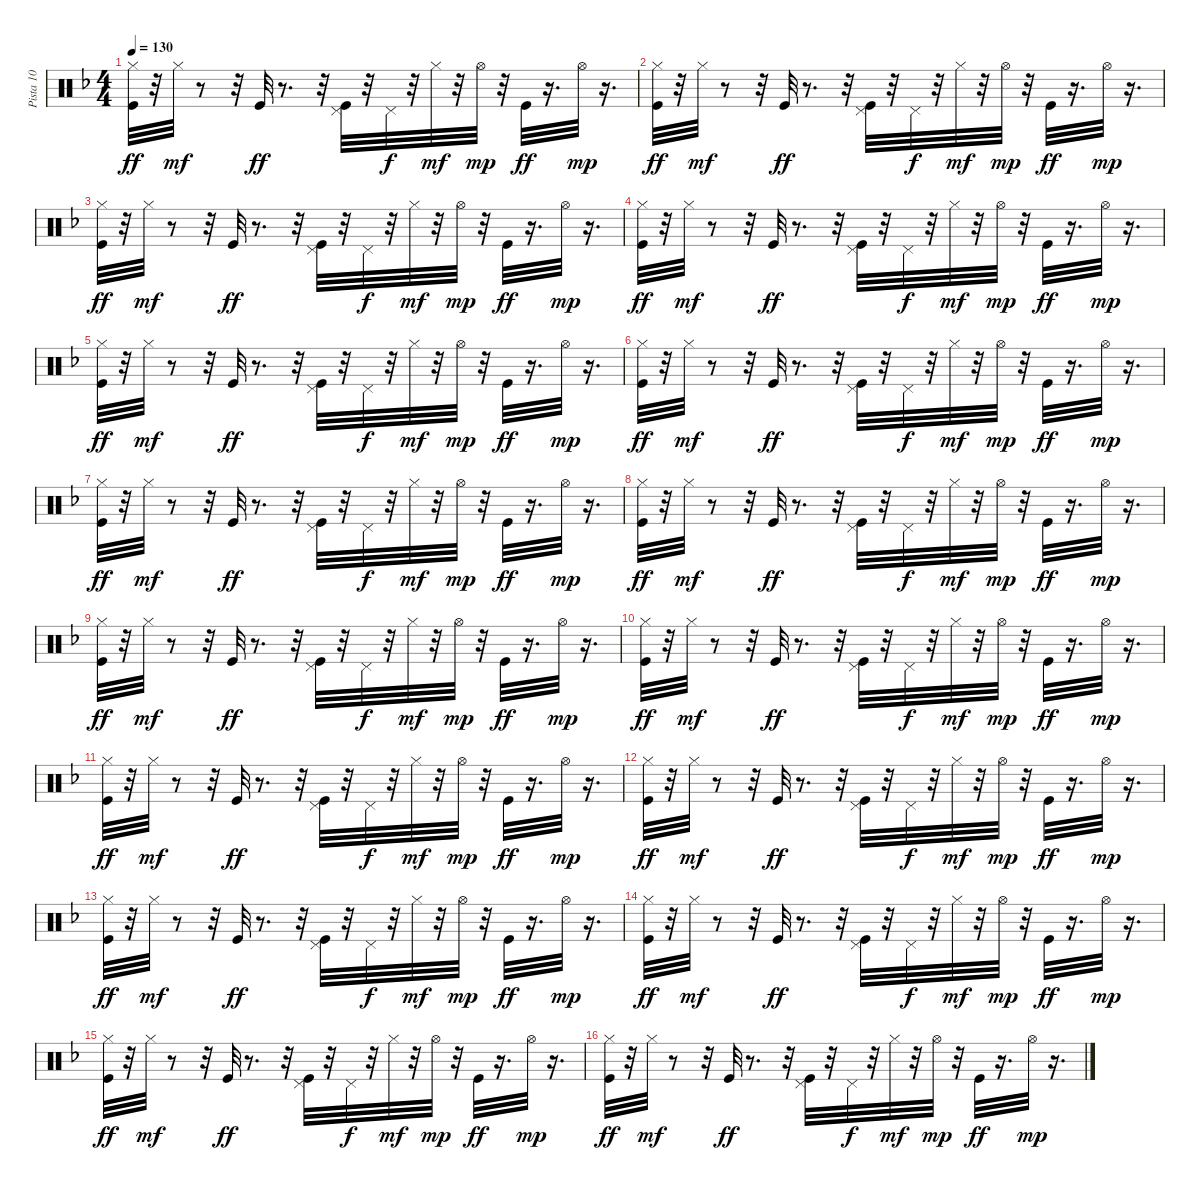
\track ("Pista 10" "Pista 10") {instrument percussion}
\staff {score}
\articulation defaults
\ts (4 4)
\tempo 130
\clef neutral
\ks dminor
("Hi-Hat (closed)" "Kick (hit)").32{dy ff} r.32 "Hi-Hat (closed)".32{dy mf} r.8 r.32 "Kick (hit)".32{dy ff} r.8{d} r.32 ("Pedal Hi-Hat (hit)" "Kick (hit)").32 r.32 "Pedal Hi-Hat (hit)".32{dy f} r.32 "Hi-Hat (closed)".32{dy mf} r.32 "Hi-Hat (open)".32{dy mp} r.32 "Kick (hit)".32{dy ff} r.16{d} "Hi-Hat (open)".32{dy mp} r.16{d} |
("Hi-Hat (closed)" "Kick (hit)").32{dy ff} r.32 "Hi-Hat (closed)".32{dy mf} r.8 r.32 "Kick (hit)".32{dy ff} r.8{d} r.32 ("Pedal Hi-Hat (hit)" "Kick (hit)").32 r.32 "Pedal Hi-Hat (hit)".32{dy f} r.32 "Hi-Hat (closed)".32{dy mf} r.32 "Hi-Hat (open)".32{dy mp} r.32 "Kick (hit)".32{dy ff} r.16{d} "Hi-Hat (open)".32{dy mp} r.16{d} |
("Hi-Hat (closed)" "Kick (hit)").32{dy ff} r.32 "Hi-Hat (closed)".32{dy mf} r.8 r.32 "Kick (hit)".32{dy ff} r.8{d} r.32 ("Pedal Hi-Hat (hit)" "Kick (hit)").32 r.32 "Pedal Hi-Hat (hit)".32{dy f} r.32 "Hi-Hat (closed)".32{dy mf} r.32 "Hi-Hat (open)".32{dy mp} r.32 "Kick (hit)".32{dy ff} r.16{d} "Hi-Hat (open)".32{dy mp} r.16{d} |
("Hi-Hat (closed)" "Kick (hit)").32{dy ff} r.32 "Hi-Hat (closed)".32{dy mf} r.8 r.32 "Kick (hit)".32{dy ff} r.8{d} r.32 ("Pedal Hi-Hat (hit)" "Kick (hit)").32 r.32 "Pedal Hi-Hat (hit)".32{dy f} r.32 "Hi-Hat (closed)".32{dy mf} r.32 "Hi-Hat (open)".32{dy mp} r.32 "Kick (hit)".32{dy ff} r.16{d} "Hi-Hat (open)".32{dy mp} r.16{d} |
("Hi-Hat (closed)" "Kick (hit)").32{dy ff} r.32 "Hi-Hat (closed)".32{dy mf} r.8 r.32 "Kick (hit)".32{dy ff} r.8{d} r.32 ("Pedal Hi-Hat (hit)" "Kick (hit)").32 r.32 "Pedal Hi-Hat (hit)".32{dy f} r.32 "Hi-Hat (closed)".32{dy mf} r.32 "Hi-Hat (open)".32{dy mp} r.32 "Kick (hit)".32{dy ff} r.16{d} "Hi-Hat (open)".32{dy mp} r.16{d} |
("Hi-Hat (closed)" "Kick (hit)").32{dy ff} r.32 "Hi-Hat (closed)".32{dy mf} r.8 r.32 "Kick (hit)".32{dy ff} r.8{d} r.32 ("Pedal Hi-Hat (hit)" "Kick (hit)").32 r.32 "Pedal Hi-Hat (hit)".32{dy f} r.32 "Hi-Hat (closed)".32{dy mf} r.32 "Hi-Hat (open)".32{dy mp} r.32 "Kick (hit)".32{dy ff} r.16{d} "Hi-Hat (open)".32{dy mp} r.16{d} |
("Hi-Hat (closed)" "Kick (hit)").32{dy ff} r.32 "Hi-Hat (closed)".32{dy mf} r.8 r.32 "Kick (hit)".32{dy ff} r.8{d} r.32 ("Pedal Hi-Hat (hit)" "Kick (hit)").32 r.32 "Pedal Hi-Hat (hit)".32{dy f} r.32 "Hi-Hat (closed)".32{dy mf} r.32 "Hi-Hat (open)".32{dy mp} r.32 "Kick (hit)".32{dy ff} r.16{d} "Hi-Hat (open)".32{dy mp} r.16{d} |
("Hi-Hat (closed)" "Kick (hit)").32{dy ff} r.32 "Hi-Hat (closed)".32{dy mf} r.8 r.32 "Kick (hit)".32{dy ff} r.8{d} r.32 ("Pedal Hi-Hat (hit)" "Kick (hit)").32 r.32 "Pedal Hi-Hat (hit)".32{dy f} r.32 "Hi-Hat (closed)".32{dy mf} r.32 "Hi-Hat (open)".32{dy mp} r.32 "Kick (hit)".32{dy ff} r.16{d} "Hi-Hat (open)".32{dy mp} r.16{d} |
("Hi-Hat (closed)" "Kick (hit)").32{dy ff} r.32 "Hi-Hat (closed)".32{dy mf} r.8 r.32 "Kick (hit)".32{dy ff} r.8{d} r.32 ("Pedal Hi-Hat (hit)" "Kick (hit)").32 r.32 "Pedal Hi-Hat (hit)".32{dy f} r.32 "Hi-Hat (closed)".32{dy mf} r.32 "Hi-Hat (open)".32{dy mp} r.32 "Kick (hit)".32{dy ff} r.16{d} "Hi-Hat (open)".32{dy mp} r.16{d} |
("Hi-Hat (closed)" "Kick (hit)").32{dy ff} r.32 "Hi-Hat (closed)".32{dy mf} r.8 r.32 "Kick (hit)".32{dy ff} r.8{d} r.32 ("Pedal Hi-Hat (hit)" "Kick (hit)").32 r.32 "Pedal Hi-Hat (hit)".32{dy f} r.32 "Hi-Hat (closed)".32{dy mf} r.32 "Hi-Hat (open)".32{dy mp} r.32 "Kick (hit)".32{dy ff} r.16{d} "Hi-Hat (open)".32{dy mp} r.16{d} |
("Hi-Hat (closed)" "Kick (hit)").32{dy ff} r.32 "Hi-Hat (closed)".32{dy mf} r.8 r.32 "Kick (hit)".32{dy ff} r.8{d} r.32 ("Pedal Hi-Hat (hit)" "Kick (hit)").32 r.32 "Pedal Hi-Hat (hit)".32{dy f} r.32 "Hi-Hat (closed)".32{dy mf} r.32 "Hi-Hat (open)".32{dy mp} r.32 "Kick (hit)".32{dy ff} r.16{d} "Hi-Hat (open)".32{dy mp} r.16{d} |
("Hi-Hat (closed)" "Kick (hit)").32{dy ff} r.32 "Hi-Hat (closed)".32{dy mf} r.8 r.32 "Kick (hit)".32{dy ff} r.8{d} r.32 ("Pedal Hi-Hat (hit)" "Kick (hit)").32 r.32 "Pedal Hi-Hat (hit)".32{dy f} r.32 "Hi-Hat (closed)".32{dy mf} r.32 "Hi-Hat (open)".32{dy mp} r.32 "Kick (hit)".32{dy ff} r.16{d} "Hi-Hat (open)".32{dy mp} r.16{d} |
("Hi-Hat (closed)" "Kick (hit)").32{dy ff} r.32 "Hi-Hat (closed)".32{dy mf} r.8 r.32 "Kick (hit)".32{dy ff} r.8{d} r.32 ("Pedal Hi-Hat (hit)" "Kick (hit)").32 r.32 "Pedal Hi-Hat (hit)".32{dy f} r.32 "Hi-Hat (closed)".32{dy mf} r.32 "Hi-Hat (open)".32{dy mp} r.32 "Kick (hit)".32{dy ff} r.16{d} "Hi-Hat (open)".32{dy mp} r.16{d} |
("Hi-Hat (closed)" "Kick (hit)").32{dy ff} r.32 "Hi-Hat (closed)".32{dy mf} r.8 r.32 "Kick (hit)".32{dy ff} r.8{d} r.32 ("Pedal Hi-Hat (hit)" "Kick (hit)").32 r.32 "Pedal Hi-Hat (hit)".32{dy f} r.32 "Hi-Hat (closed)".32{dy mf} r.32 "Hi-Hat (open)".32{dy mp} r.32 "Kick (hit)".32{dy ff} r.16{d} "Hi-Hat (open)".32{dy mp} r.16{d} |
("Hi-Hat (closed)" "Kick (hit)").32{dy ff} r.32 "Hi-Hat (closed)".32{dy mf} r.8 r.32 "Kick (hit)".32{dy ff} r.8{d} r.32 ("Pedal Hi-Hat (hit)" "Kick (hit)").32 r.32 "Pedal Hi-Hat (hit)".32{dy f} r.32 "Hi-Hat (closed)".32{dy mf} r.32 "Hi-Hat (open)".32{dy mp} r.32 "Kick (hit)".32{dy ff} r.16{d} "Hi-Hat (open)".32{dy mp} r.16{d} |
("Hi-Hat (closed)" "Kick (hit)").32{dy ff} r.32 "Hi-Hat (closed)".32{dy mf} r.8 r.32 "Kick (hit)".32{dy ff} r.8{d} r.32 ("Pedal Hi-Hat (hit)" "Kick (hit)").32 r.32 "Pedal Hi-Hat (hit)".32{dy f} r.32 "Hi-Hat (closed)".32{dy mf} r.32 "Hi-Hat (open)".32{dy mp} r.32 "Kick (hit)".32{dy ff} r.16{d} "Hi-Hat (open)".32{dy mp} r.16{d}
